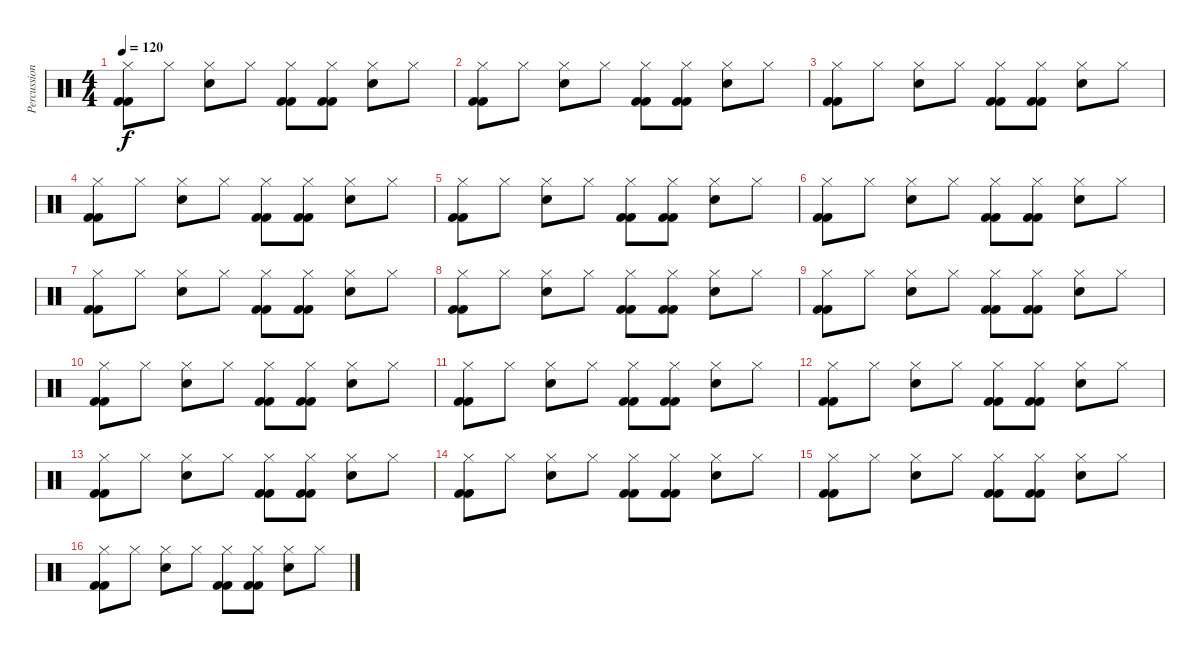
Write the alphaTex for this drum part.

\track ("Percussion" "Percussion") {instrument percussion}
\staff {score}
\articulation defaults
\ts (4 4)
\tempo 120
\clef neutral
\ks c
("Kick (hit) 2" "Hi-Hat (closed)" "Kick (hit) 2").8{dy f} "Hi-Hat (closed)".8 ("Snare (hit) 2" "Hi-Hat (closed)").8 "Hi-Hat (closed)".8 ("Kick (hit) 2" "Hi-Hat (closed)" "Kick (hit) 2").8 ("Kick (hit) 2" "Hi-Hat (closed)" "Kick (hit) 2").8 ("Snare (hit) 2" "Hi-Hat (closed)").8 "Hi-Hat (closed)".8 |
("Kick (hit) 2" "Hi-Hat (closed)" "Kick (hit) 2").8 "Hi-Hat (closed)".8 ("Snare (hit) 2" "Hi-Hat (closed)").8 "Hi-Hat (closed)".8 ("Kick (hit) 2" "Hi-Hat (closed)" "Kick (hit) 2").8 ("Kick (hit) 2" "Hi-Hat (closed)" "Kick (hit) 2").8 ("Snare (hit) 2" "Hi-Hat (closed)").8 "Hi-Hat (closed)".8 |
("Kick (hit) 2" "Hi-Hat (closed)" "Kick (hit) 2").8 "Hi-Hat (closed)".8 ("Snare (hit) 2" "Hi-Hat (closed)").8 "Hi-Hat (closed)".8 ("Kick (hit) 2" "Hi-Hat (closed)" "Kick (hit) 2").8 ("Kick (hit) 2" "Hi-Hat (closed)" "Kick (hit) 2").8 ("Snare (hit) 2" "Hi-Hat (closed)").8 "Hi-Hat (closed)".8 |
("Kick (hit) 2" "Hi-Hat (closed)" "Kick (hit) 2").8 "Hi-Hat (closed)".8 ("Snare (hit) 2" "Hi-Hat (closed)").8 "Hi-Hat (closed)".8 ("Kick (hit) 2" "Hi-Hat (closed)" "Kick (hit) 2").8 ("Kick (hit) 2" "Hi-Hat (closed)" "Kick (hit) 2").8 ("Snare (hit) 2" "Hi-Hat (closed)").8 "Hi-Hat (closed)".8 |
("Kick (hit) 2" "Hi-Hat (closed)" "Kick (hit) 2").8 "Hi-Hat (closed)".8 ("Snare (hit) 2" "Hi-Hat (closed)").8 "Hi-Hat (closed)".8 ("Kick (hit) 2" "Hi-Hat (closed)" "Kick (hit) 2").8 ("Kick (hit) 2" "Hi-Hat (closed)" "Kick (hit) 2").8 ("Snare (hit) 2" "Hi-Hat (closed)").8 "Hi-Hat (closed)".8 |
("Kick (hit) 2" "Hi-Hat (closed)" "Kick (hit) 2").8 "Hi-Hat (closed)".8 ("Snare (hit) 2" "Hi-Hat (closed)").8 "Hi-Hat (closed)".8 ("Kick (hit) 2" "Hi-Hat (closed)" "Kick (hit) 2").8 ("Kick (hit) 2" "Hi-Hat (closed)" "Kick (hit) 2").8 ("Snare (hit) 2" "Hi-Hat (closed)").8 "Hi-Hat (closed)".8 |
("Kick (hit) 2" "Hi-Hat (closed)" "Kick (hit) 2").8 "Hi-Hat (closed)".8 ("Snare (hit) 2" "Hi-Hat (closed)").8 "Hi-Hat (closed)".8 ("Kick (hit) 2" "Hi-Hat (closed)" "Kick (hit) 2").8 ("Kick (hit) 2" "Hi-Hat (closed)" "Kick (hit) 2").8 ("Snare (hit) 2" "Hi-Hat (closed)").8 "Hi-Hat (closed)".8 |
("Kick (hit) 2" "Hi-Hat (closed)" "Kick (hit) 2").8 "Hi-Hat (closed)".8 ("Snare (hit) 2" "Hi-Hat (closed)").8 "Hi-Hat (closed)".8 ("Kick (hit) 2" "Hi-Hat (closed)" "Kick (hit) 2").8 ("Kick (hit) 2" "Hi-Hat (closed)" "Kick (hit) 2").8 ("Snare (hit) 2" "Hi-Hat (closed)").8 "Hi-Hat (closed)".8 |
("Kick (hit) 2" "Hi-Hat (closed)" "Kick (hit) 2").8 "Hi-Hat (closed)".8 ("Snare (hit) 2" "Hi-Hat (closed)").8 "Hi-Hat (closed)".8 ("Kick (hit) 2" "Hi-Hat (closed)" "Kick (hit) 2").8 ("Kick (hit) 2" "Hi-Hat (closed)" "Kick (hit) 2").8 ("Snare (hit) 2" "Hi-Hat (closed)").8 "Hi-Hat (closed)".8 |
("Kick (hit) 2" "Hi-Hat (closed)" "Kick (hit) 2").8 "Hi-Hat (closed)".8 ("Snare (hit) 2" "Hi-Hat (closed)").8 "Hi-Hat (closed)".8 ("Kick (hit) 2" "Hi-Hat (closed)" "Kick (hit) 2").8 ("Kick (hit) 2" "Hi-Hat (closed)" "Kick (hit) 2").8 ("Snare (hit) 2" "Hi-Hat (closed)").8 "Hi-Hat (closed)".8 |
("Kick (hit) 2" "Hi-Hat (closed)" "Kick (hit) 2").8 "Hi-Hat (closed)".8 ("Snare (hit) 2" "Hi-Hat (closed)").8 "Hi-Hat (closed)".8 ("Kick (hit) 2" "Hi-Hat (closed)" "Kick (hit) 2").8 ("Kick (hit) 2" "Hi-Hat (closed)" "Kick (hit) 2").8 ("Snare (hit) 2" "Hi-Hat (closed)").8 "Hi-Hat (closed)".8 |
("Kick (hit) 2" "Hi-Hat (closed)" "Kick (hit) 2").8 "Hi-Hat (closed)".8 ("Snare (hit) 2" "Hi-Hat (closed)").8 "Hi-Hat (closed)".8 ("Kick (hit) 2" "Hi-Hat (closed)" "Kick (hit) 2").8 ("Kick (hit) 2" "Hi-Hat (closed)" "Kick (hit) 2").8 ("Snare (hit) 2" "Hi-Hat (closed)").8 "Hi-Hat (closed)".8 |
("Kick (hit) 2" "Hi-Hat (closed)" "Kick (hit) 2").8 "Hi-Hat (closed)".8 ("Snare (hit) 2" "Hi-Hat (closed)").8 "Hi-Hat (closed)".8 ("Kick (hit) 2" "Hi-Hat (closed)" "Kick (hit) 2").8 ("Kick (hit) 2" "Hi-Hat (closed)" "Kick (hit) 2").8 ("Snare (hit) 2" "Hi-Hat (closed)").8 "Hi-Hat (closed)".8 |
("Kick (hit) 2" "Hi-Hat (closed)" "Kick (hit) 2").8 "Hi-Hat (closed)".8 ("Snare (hit) 2" "Hi-Hat (closed)").8 "Hi-Hat (closed)".8 ("Kick (hit) 2" "Hi-Hat (closed)" "Kick (hit) 2").8 ("Kick (hit) 2" "Hi-Hat (closed)" "Kick (hit) 2").8 ("Snare (hit) 2" "Hi-Hat (closed)").8 "Hi-Hat (closed)".8 |
("Kick (hit) 2" "Hi-Hat (closed)" "Kick (hit) 2").8 "Hi-Hat (closed)".8 ("Snare (hit) 2" "Hi-Hat (closed)").8 "Hi-Hat (closed)".8 ("Kick (hit) 2" "Hi-Hat (closed)" "Kick (hit) 2").8 ("Kick (hit) 2" "Hi-Hat (closed)" "Kick (hit) 2").8 ("Snare (hit) 2" "Hi-Hat (closed)").8 "Hi-Hat (closed)".8 |
("Kick (hit) 2" "Hi-Hat (closed)" "Kick (hit) 2").8 "Hi-Hat (closed)".8 ("Snare (hit) 2" "Hi-Hat (closed)").8 "Hi-Hat (closed)".8 ("Kick (hit) 2" "Hi-Hat (closed)" "Kick (hit) 2").8 ("Kick (hit) 2" "Hi-Hat (closed)" "Kick (hit) 2").8 ("Snare (hit) 2" "Hi-Hat (closed)").8 "Hi-Hat (closed)".8
